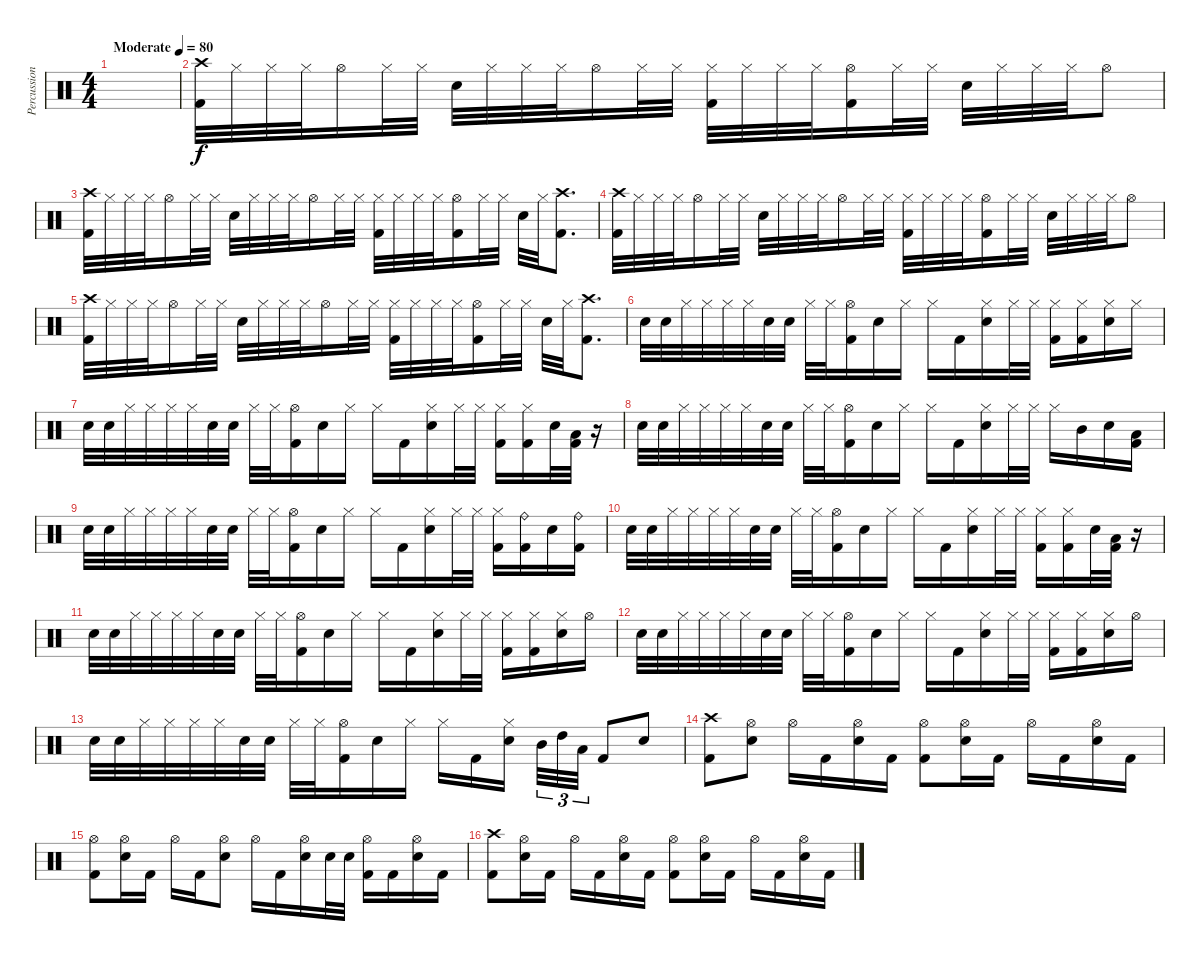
\track ("Percussion" "Percussion") {instrument percussion}
\staff {score}
\articulation defaults
\ts (4 4)
\tempo (80 "Moderate")
\clef neutral
\ks c
|
("Crash high (hit)" "Kick (hit) 2").32 "Hi-Hat (closed)".32 "Hi-Hat (closed)".32 "Hi-Hat (closed)".32 "Hi-Hat (open)".16 "Hi-Hat (closed)".32 "Hi-Hat (closed)".32 "Snare (hit) 2".32 "Hi-Hat (closed)".32 "Hi-Hat (closed)".32 "Hi-Hat (closed)".32 "Hi-Hat (open)".16 "Hi-Hat (closed)".32 "Hi-Hat (closed)".32 ("Hi-Hat (closed)" "Kick (hit) 2").32 "Hi-Hat (closed)".32 "Hi-Hat (closed)".32 "Hi-Hat (closed)".32 ("Hi-Hat (open)" "Kick (hit) 2").16 "Hi-Hat (closed)".32 "Hi-Hat (closed)".32 "Snare (hit) 2".32 "Hi-Hat (closed)".32 "Hi-Hat (closed)".32 "Hi-Hat (closed)".32 "Hi-Hat (open)".8 |
("Crash high (hit)" "Kick (hit) 2").32 "Hi-Hat (closed)".32 "Hi-Hat (closed)".32 "Hi-Hat (closed)".32 "Hi-Hat (open)".16 "Hi-Hat (closed)".32 "Hi-Hat (closed)".32 "Snare (hit) 2".32 "Hi-Hat (closed)".32 "Hi-Hat (closed)".32 "Hi-Hat (closed)".32 "Hi-Hat (open)".16 "Hi-Hat (closed)".32 "Hi-Hat (closed)".32 ("Hi-Hat (closed)" "Kick (hit) 2").32 "Hi-Hat (closed)".32 "Hi-Hat (closed)".32 "Hi-Hat (closed)".32 ("Hi-Hat (open)" "Kick (hit) 2").16 "Hi-Hat (closed)".32 "Hi-Hat (closed)".32 "Snare (hit) 2".32 "Hi-Hat (closed)".32 ("Crash high (hit)" "Kick (hit) 2").8{d} |
("Crash high (hit)" "Kick (hit) 2").32 "Hi-Hat (closed)".32 "Hi-Hat (closed)".32 "Hi-Hat (closed)".32 "Hi-Hat (open)".16 "Hi-Hat (closed)".32 "Hi-Hat (closed)".32 "Snare (hit) 2".32 "Hi-Hat (closed)".32 "Hi-Hat (closed)".32 "Hi-Hat (closed)".32 "Hi-Hat (open)".16 "Hi-Hat (closed)".32 "Hi-Hat (closed)".32 ("Hi-Hat (closed)" "Kick (hit) 2").32 "Hi-Hat (closed)".32 "Hi-Hat (closed)".32 "Hi-Hat (closed)".32 ("Hi-Hat (open)" "Kick (hit) 2").16 "Hi-Hat (closed)".32 "Hi-Hat (closed)".32 "Snare (hit) 2".32 "Hi-Hat (closed)".32 "Hi-Hat (closed)".32 "Hi-Hat (closed)".32 "Hi-Hat (open)".8 |
("Crash high (hit)" "Kick (hit) 2").32 "Hi-Hat (closed)".32 "Hi-Hat (closed)".32 "Hi-Hat (closed)".32 "Hi-Hat (open)".16 "Hi-Hat (closed)".32 "Hi-Hat (closed)".32 "Snare (hit) 2".32 "Hi-Hat (closed)".32 "Hi-Hat (closed)".32 "Hi-Hat (closed)".32 "Hi-Hat (open)".16 "Hi-Hat (closed)".32 "Hi-Hat (closed)".32 ("Hi-Hat (closed)" "Kick (hit) 2").32 "Hi-Hat (closed)".32 "Hi-Hat (closed)".32 "Hi-Hat (closed)".32 ("Hi-Hat (open)" "Kick (hit) 2").16 "Hi-Hat (closed)".32 "Hi-Hat (closed)".32 "Snare (hit) 2".32 "Hi-Hat (closed)".32 ("Crash high (hit)" "Kick (hit) 2").8{d} |
"Snare (hit) 2".32 "Snare (hit) 2".32 "Hi-Hat (closed)".32 "Hi-Hat (closed)".32 "Hi-Hat (closed)".32 "Hi-Hat (closed)".32 "Snare (hit) 2".32 "Snare (hit) 2".32 "Hi-Hat (closed)".32 "Hi-Hat (closed)".32 ("Hi-Hat (open)" "Kick (hit) 2").16 "Snare (hit) 2".16 "Hi-Hat (closed)".16 "Hi-Hat (closed)".16 "Kick (hit) 2".16 ("Hi-Hat (closed)" "Snare (hit) 2").16 "Hi-Hat (closed)".32 "Hi-Hat (closed)".32 ("Hi-Hat (closed)" "Kick (hit) 2").16 ("Hi-Hat (closed)" "Kick (hit) 2").16 ("Hi-Hat (closed)" "Snare (hit) 2").16 "Hi-Hat (closed)".16 |
"Snare (hit) 2".32 "Snare (hit) 2".32 "Hi-Hat (closed)".32 "Hi-Hat (closed)".32 "Hi-Hat (closed)".32 "Hi-Hat (closed)".32 "Snare (hit) 2".32 "Snare (hit) 2".32 "Hi-Hat (closed)".32 "Hi-Hat (closed)".32 ("Hi-Hat (open)" "Kick (hit) 2").16 "Snare (hit) 2".16 "Hi-Hat (closed)".16 "Hi-Hat (closed)".16 "Kick (hit) 2".16 ("Hi-Hat (closed)" "Snare (hit) 2").16 "Hi-Hat (closed)".32 "Hi-Hat (closed)".32 ("Hi-Hat (closed)" "Kick (hit) 2").16 ("Hi-Hat (closed)" "Kick (hit) 2").16 "Snare (hit) 2".32 ("Low Tom (hit)" "Kick (hit) 2").32 r.16 |
"Snare (hit) 2".32 "Snare (hit) 2".32 "Hi-Hat (closed)".32 "Hi-Hat (closed)".32 "Hi-Hat (closed)".32 "Hi-Hat (closed)".32 "Snare (hit) 2".32 "Snare (hit) 2".32 "Hi-Hat (closed)".32 "Hi-Hat (closed)".32 ("Hi-Hat (open)" "Kick (hit) 2").16 "Snare (hit) 2".16 "Hi-Hat (closed)".16 "Hi-Hat (closed)".16 "Kick (hit) 2".16 ("Hi-Hat (closed)" "Snare (hit) 2").16 "Hi-Hat (closed)".32 "Hi-Hat (closed)".32 "Hi-Hat (closed)".16 "Mid Tom (hit)".16 "Snare (hit) 2".16 ("Low Tom (hit)" "Kick (hit) 2").16 |
"Snare (hit) 2".32 "Snare (hit) 2".32 "Hi-Hat (closed)".32 "Hi-Hat (closed)".32 "Hi-Hat (closed)".32 "Hi-Hat (closed)".32 "Snare (hit) 2".32 "Snare (hit) 2".32 "Hi-Hat (closed)".32 "Hi-Hat (closed)".32 ("Hi-Hat (open)" "Kick (hit) 2").16 "Snare (hit) 2".16 "Hi-Hat (closed)".16 "Hi-Hat (closed)".16 "Kick (hit) 2".16 ("Hi-Hat (closed)" "Snare (hit) 2").16 "Hi-Hat (closed)".32 "Hi-Hat (closed)".32 ("Hi-Hat (closed)" "Kick (hit) 2").16 ("Ride (bell)" "Kick (hit) 2").16 "Snare (hit) 2".16 ("Ride (bell)" "Kick (hit) 2").16 |
"Snare (hit) 2".32 "Snare (hit) 2".32 "Hi-Hat (closed)".32 "Hi-Hat (closed)".32 "Hi-Hat (closed)".32 "Hi-Hat (closed)".32 "Snare (hit) 2".32 "Snare (hit) 2".32 "Hi-Hat (closed)".32 "Hi-Hat (closed)".32 ("Hi-Hat (open)" "Kick (hit) 2").16 "Snare (hit) 2".16 "Hi-Hat (closed)".16 "Hi-Hat (closed)".16 "Kick (hit) 2".16 ("Hi-Hat (closed)" "Snare (hit) 2").16 "Hi-Hat (closed)".32 "Hi-Hat (closed)".32 ("Hi-Hat (closed)" "Kick (hit) 2").16 ("Hi-Hat (closed)" "Kick (hit) 2").16 "Snare (hit) 2".32 ("Low Tom (hit)" "Kick (hit) 2").32 r.16 |
"Snare (hit) 2".32 "Snare (hit) 2".32 "Hi-Hat (closed)".32 "Hi-Hat (closed)".32 "Hi-Hat (closed)".32 "Hi-Hat (closed)".32 "Snare (hit) 2".32 "Snare (hit) 2".32 "Hi-Hat (closed)".32 "Hi-Hat (closed)".32 ("Hi-Hat (open)" "Kick (hit) 2").16 "Snare (hit) 2".16 "Hi-Hat (closed)".16 "Hi-Hat (closed)".16 "Kick (hit) 2".16 ("Hi-Hat (closed)" "Snare (hit) 2").16 "Hi-Hat (closed)".32 "Hi-Hat (closed)".32 ("Hi-Hat (closed)" "Kick (hit) 2").16 ("Hi-Hat (closed)" "Kick (hit) 2").16 ("Hi-Hat (closed)" "Snare (hit) 2").16 "Hi-Hat (open)".16 |
"Snare (hit) 2".32 "Snare (hit) 2".32 "Hi-Hat (closed)".32 "Hi-Hat (closed)".32 "Hi-Hat (closed)".32 "Hi-Hat (closed)".32 "Snare (hit) 2".32 "Snare (hit) 2".32 "Hi-Hat (closed)".32 "Hi-Hat (closed)".32 ("Hi-Hat (open)" "Kick (hit) 2").16 "Snare (hit) 2".16 "Hi-Hat (closed)".16 "Hi-Hat (closed)".16 "Kick (hit) 2".16 ("Hi-Hat (closed)" "Snare (hit) 2").16 "Hi-Hat (closed)".32 "Hi-Hat (closed)".32 ("Hi-Hat (closed)" "Kick (hit) 2").16 ("Hi-Hat (closed)" "Kick (hit) 2").16 ("Hi-Hat (closed)" "Snare (hit) 2").16 "Hi-Hat (open)".16 |
"Snare (hit) 2".32 "Snare (hit) 2".32 "Hi-Hat (closed)".32 "Hi-Hat (closed)".32 "Hi-Hat (closed)".32 "Hi-Hat (closed)".32 "Snare (hit) 2".32 "Snare (hit) 2".32 "Hi-Hat (closed)".32 "Hi-Hat (closed)".32 ("Hi-Hat (open)" "Kick (hit) 2").16 "Snare (hit) 2".16 "Hi-Hat (closed)".16 "Hi-Hat (closed)".16 "Kick (hit) 2".16 ("Hi-Hat (closed)" "Snare (hit) 2").16{beam splitsecondary} "Mid Tom (hit)".32{tu (3 2)} "High Tom (hit)".32{tu (3 2)} "Low Tom (hit)".32{tu (3 2)} "Kick (hit) 2".8 "Snare (hit) 2".8 |
("Crash high (hit)" "Kick (hit) 2").8 ("Hi-Hat (open)" "Snare (hit) 2").8 "Hi-Hat (open)".16 "Kick (hit) 2".16 ("Hi-Hat (open)" "Snare (hit) 2").16 "Kick (hit) 2".16 ("Hi-Hat (open)" "Kick (hit) 2").8 ("Hi-Hat (open)" "Snare (hit) 2").16 "Kick (hit) 2".16 "Hi-Hat (open)".16 "Kick (hit) 2".16 ("Hi-Hat (open)" "Snare (hit) 2").16 "Kick (hit) 2".16 |
("Hi-Hat (open)" "Kick (hit) 2").8 ("Hi-Hat (open)" "Snare (hit) 2").16 "Kick (hit) 2".16 "Hi-Hat (open)".16 "Kick (hit) 2".16 ("Hi-Hat (open)" "Snare (hit) 2").8 "Hi-Hat (open)".16 "Kick (hit) 2".16 ("Hi-Hat (open)" "Snare (hit) 2").16 "Snare (hit) 2".32 "Snare (hit) 2".32 ("Hi-Hat (open)" "Kick (hit) 2").16 "Kick (hit) 2".16 ("Hi-Hat (open)" "Snare (hit) 2").16 "Kick (hit) 2".16 |
("Crash high (hit)" "Kick (hit) 2").8 ("Hi-Hat (open)" "Snare (hit) 2").16 "Kick (hit) 2".16 "Hi-Hat (open)".16 "Kick (hit) 2".16 ("Hi-Hat (open)" "Snare (hit) 2").16 "Kick (hit) 2".16 ("Hi-Hat (open)" "Kick (hit) 2").8 ("Hi-Hat (open)" "Snare (hit) 2").16 "Kick (hit) 2".16 "Hi-Hat (open)".16 "Kick (hit) 2".16 ("Hi-Hat (open)" "Snare (hit) 2").16 "Kick (hit) 2".16
